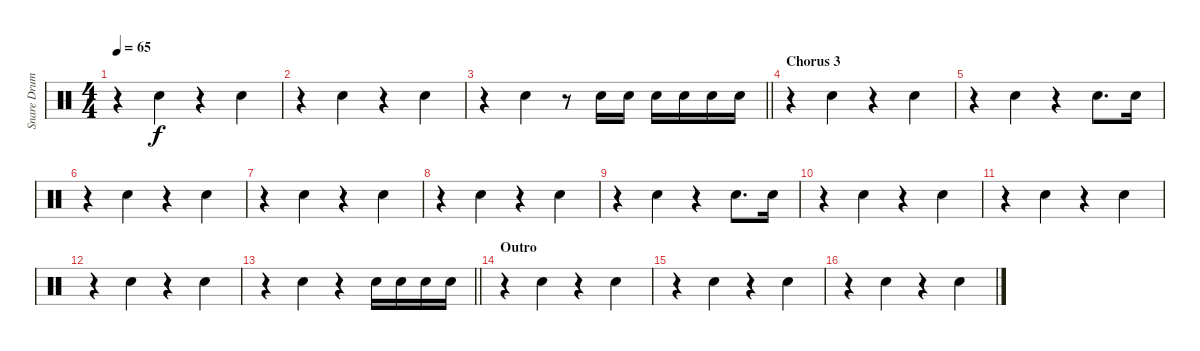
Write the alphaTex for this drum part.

\track ("Snare Drum - reverb" "Snare Drum") {instrument percussion}
\staff {score}
\articulation defaults
\ts (4 4)
\tempo 65
\clef neutral
\ks c
r.4{dy f} "Snare (hit) 2".4 r.4 "Snare (hit) 2".4 |
r.4 "Snare (hit) 2".4 r.4 "Snare (hit) 2".4 |
\barLineRight lightlight
r.4{beam merge} "Snare (hit) 2".4 r.8 "Snare (hit) 2".16 "Snare (hit) 2".16 "Snare (hit) 2".16 "Snare (hit) 2".16 "Snare (hit) 2".16 "Snare (hit) 2".16 |
\section ("" "Chorus 3")
r.4 "Snare (hit) 2".4 r.4 "Snare (hit) 2".4 |
r.4 "Snare (hit) 2".4 r.4 "Snare (hit) 2".8{d} "Snare (hit) 2".16 |
r.4 "Snare (hit) 2".4 r.4 "Snare (hit) 2".4 |
r.4 "Snare (hit) 2".4 r.4 "Snare (hit) 2".4 |
r.4 "Snare (hit) 2".4 r.4 "Snare (hit) 2".4 |
r.4 "Snare (hit) 2".4 r.4 "Snare (hit) 2".8{d} "Snare (hit) 2".16 |
r.4 "Snare (hit) 2".4 r.4 "Snare (hit) 2".4 |
r.4 "Snare (hit) 2".4 r.4 "Snare (hit) 2".4 |
r.4 "Snare (hit) 2".4 r.4 "Snare (hit) 2".4 |
\barLineRight lightlight
r.4{beam merge} "Snare (hit) 2".4 r.4 "Snare (hit) 2".16 "Snare (hit) 2".16 "Snare (hit) 2".16 "Snare (hit) 2".16 |
\section ("" "Outro")
r.4 "Snare (hit) 2".4 r.4 "Snare (hit) 2".4 |
r.4 "Snare (hit) 2".4 r.4 "Snare (hit) 2".4 |
r.4 "Snare (hit) 2".4 r.4 "Snare (hit) 2".4
